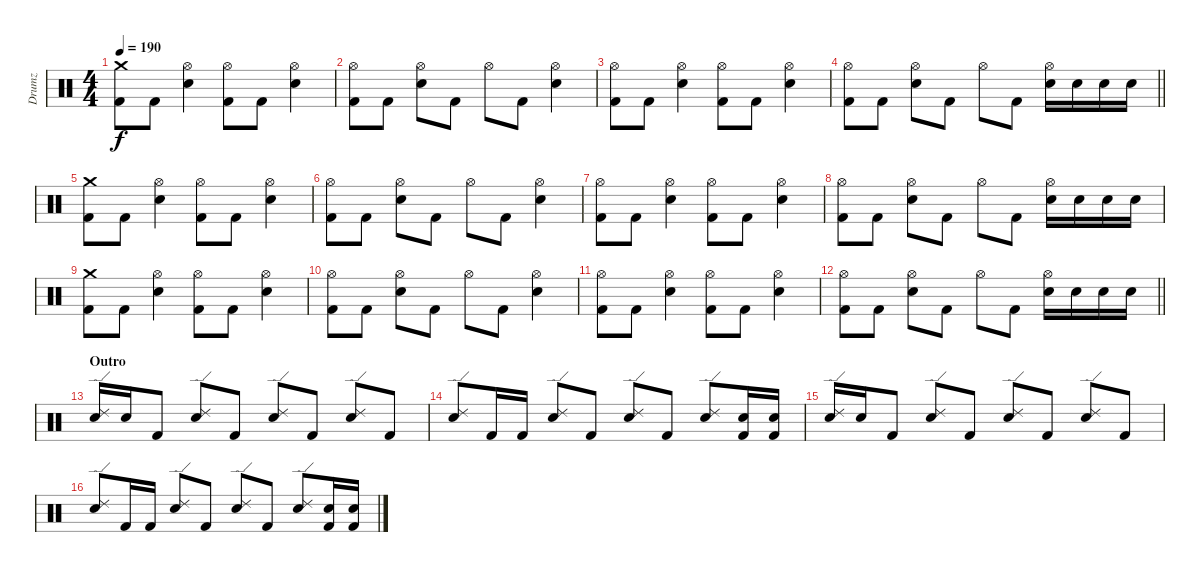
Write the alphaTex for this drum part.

\track ("Drumz" "Drumz") {instrument percussion}
\staff {score}
\articulation defaults
\ts (4 4)
\tempo 190
\clef neutral
\ks c
("Crash medium (hit)" "Kick (hit) 2").8{dy f} "Kick (hit) 2".8 ("Snare (hit) 2" "Hi-Hat (open)").4 ("Hi-Hat (open)" "Kick (hit) 2").8 "Kick (hit) 2".8 ("Snare (hit) 2" "Hi-Hat (open)").4 |
("Hi-Hat (open)" "Kick (hit) 2").8 "Kick (hit) 2".8 ("Snare (hit) 2" "Hi-Hat (open)").8 "Kick (hit) 2".8 "Hi-Hat (open)".8 "Kick (hit) 2".8 ("Snare (hit) 2" "Hi-Hat (open)").4 |
("Hi-Hat (open)" "Kick (hit) 2").8 "Kick (hit) 2".8 ("Snare (hit) 2" "Hi-Hat (open)").4 ("Hi-Hat (open)" "Kick (hit) 2").8 "Kick (hit) 2".8 ("Snare (hit) 2" "Hi-Hat (open)").4 |
\barLineRight lightlight
("Hi-Hat (open)" "Kick (hit) 2").8 "Kick (hit) 2".8 ("Snare (hit) 2" "Hi-Hat (open)").8 "Kick (hit) 2".8 "Hi-Hat (open)".8 "Kick (hit) 2".8 ("Snare (hit) 2" "Hi-Hat (open)").16 "Snare (hit) 2".16 "Snare (hit) 2".16 "Snare (hit) 2".16 |
("Crash medium (hit)" "Kick (hit) 2").8 "Kick (hit) 2".8 ("Snare (hit) 2" "Hi-Hat (open)").4 ("Hi-Hat (open)" "Kick (hit) 2").8 "Kick (hit) 2".8 ("Snare (hit) 2" "Hi-Hat (open)").4 |
("Hi-Hat (open)" "Kick (hit) 2").8 "Kick (hit) 2".8 ("Snare (hit) 2" "Hi-Hat (open)").8 "Kick (hit) 2".8 "Hi-Hat (open)".8 "Kick (hit) 2".8 ("Snare (hit) 2" "Hi-Hat (open)").4 |
("Hi-Hat (open)" "Kick (hit) 2").8 "Kick (hit) 2".8 ("Snare (hit) 2" "Hi-Hat (open)").4 ("Hi-Hat (open)" "Kick (hit) 2").8 "Kick (hit) 2".8 ("Snare (hit) 2" "Hi-Hat (open)").4 |
("Hi-Hat (open)" "Kick (hit) 2").8 "Kick (hit) 2".8 ("Snare (hit) 2" "Hi-Hat (open)").8 "Kick (hit) 2".8 "Hi-Hat (open)".8 "Kick (hit) 2".8 ("Snare (hit) 2" "Hi-Hat (open)").16 "Snare (hit) 2".16 "Snare (hit) 2".16 "Snare (hit) 2".16 |
("Crash medium (hit)" "Kick (hit) 2").8 "Kick (hit) 2".8 ("Snare (hit) 2" "Hi-Hat (open)").4 ("Hi-Hat (open)" "Kick (hit) 2").8 "Kick (hit) 2".8 ("Snare (hit) 2" "Hi-Hat (open)").4 |
("Hi-Hat (open)" "Kick (hit) 2").8 "Kick (hit) 2".8 ("Snare (hit) 2" "Hi-Hat (open)").8 "Kick (hit) 2".8 "Hi-Hat (open)".8 "Kick (hit) 2".8 ("Snare (hit) 2" "Hi-Hat (open)").4 |
("Hi-Hat (open)" "Kick (hit) 2").8 "Kick (hit) 2".8 ("Snare (hit) 2" "Hi-Hat (open)").4 ("Hi-Hat (open)" "Kick (hit) 2").8 "Kick (hit) 2".8 ("Snare (hit) 2" "Hi-Hat (open)").4 |
\barLineRight lightlight
("Hi-Hat (open)" "Kick (hit) 2").8 "Kick (hit) 2".8 ("Snare (hit) 2" "Hi-Hat (open)").8 "Kick (hit) 2".8 "Hi-Hat (open)".8 "Kick (hit) 2".8 ("Snare (hit) 2" "Hi-Hat (open)").16 "Snare (hit) 2".16 "Snare (hit) 2".16 "Snare (hit) 2".16 |
\section ("" "Outro")
("Ride (edge) 2" "Snare (hit) 2").16 "Snare (hit) 2".16 "Kick (hit) 2".8 ("Ride (edge) 2" "Snare (hit) 2").8 "Kick (hit) 2".8 ("Ride (edge) 2" "Snare (hit) 2").8 "Kick (hit) 2".8 ("Ride (edge) 2" "Snare (hit) 2").8 "Kick (hit) 2".8 |
("Ride (edge) 2" "Snare (hit) 2").8 "Kick (hit) 2".16 "Kick (hit) 2".16 ("Ride (edge) 2" "Snare (hit) 2").8 "Kick (hit) 2".8 ("Ride (edge) 2" "Snare (hit) 2").8 "Kick (hit) 2".8 ("Ride (edge) 2" "Snare (hit) 2").8 ("Snare (hit) 2" "Kick (hit) 2").16 ("Snare (hit) 2" "Kick (hit) 2").16 |
("Ride (edge) 2" "Snare (hit) 2").16 "Snare (hit) 2".16 "Kick (hit) 2".8 ("Ride (edge) 2" "Snare (hit) 2").8 "Kick (hit) 2".8 ("Ride (edge) 2" "Snare (hit) 2").8 "Kick (hit) 2".8 ("Ride (edge) 2" "Snare (hit) 2").8 "Kick (hit) 2".8 |
("Ride (edge) 2" "Snare (hit) 2").8 "Kick (hit) 2".16 "Kick (hit) 2".16 ("Ride (edge) 2" "Snare (hit) 2").8 "Kick (hit) 2".8 ("Ride (edge) 2" "Snare (hit) 2").8 "Kick (hit) 2".8 ("Ride (edge) 2" "Snare (hit) 2").8 ("Snare (hit) 2" "Kick (hit) 2").16 ("Snare (hit) 2" "Kick (hit) 2").16
